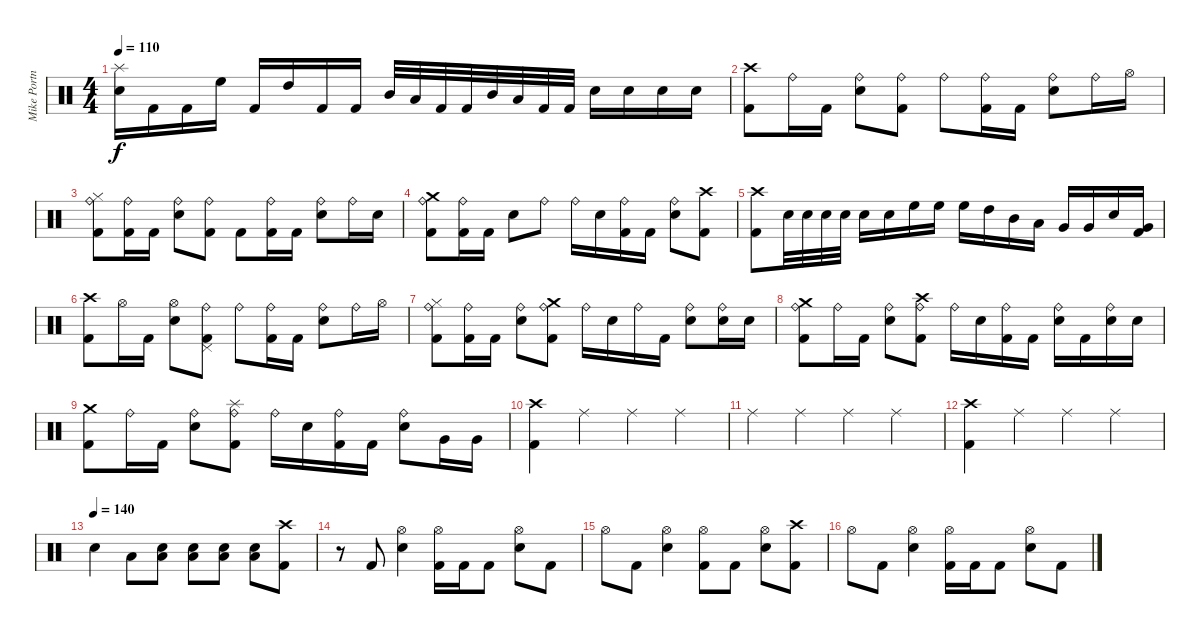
\track ("Mike Portnoy - Drums" "Mike Portn") {instrument percussion}
\staff {score}
\articulation defaults
\ts (4 4)
\tempo 110
\clef neutral
\ks c
("Electric Snare (hit)" "Splash (hit)").16{dy f} "Kick (hit) 2".16 "Kick (hit) 2".16 "High Floor Tom (hit)".16 "Kick (hit) 2".16 "High Tom (hit)".16 "Kick (hit) 2".16 "Kick (hit) 2".16 "Mid Tom (hit)".32 "Low Tom (hit)".32 "Kick (hit) 2".32 "Kick (hit) 2".32 "Mid Tom (hit)".32 "Low Tom (hit)".32 "Kick (hit) 2".32 "Kick (hit) 2".32 "Electric Snare (hit)".16 "Electric Snare (hit)".16 "Electric Snare (hit)".16 "Electric Snare (hit)".16 |
("Crash high (hit)" "Kick (hit) 2").8 "Ride (bell)".16 "Kick (hit) 2".16 ("Electric Snare (hit)" "Ride (bell)").8 ("Kick (hit) 2" "Ride (bell)").8 "Ride (bell)".8 ("Kick (hit) 2" "Ride (bell)").16 "Kick (hit) 2".16 ("Electric Snare (hit)" "Ride (bell)").8 "Ride (bell)".16 "Hi-Hat (open)".16 |
("Ride (bell)" "Hi-Hat (closed)" "Kick (hit) 2").8 ("Ride (bell)" "Kick (hit) 2").16 "Kick (hit) 2".16 ("Electric Snare (hit)" "Ride (bell)").8 ("Kick (hit) 2" "Ride (bell)").8 "Kick (hit) 2".8 ("Kick (hit) 2" "Ride (bell)").16 "Kick (hit) 2".16 ("Ride (bell)" "Electric Snare (hit)").8 "Ride (bell)".16 "Electric Snare (hit)".16 |
("Kick (hit) 2" "Ride (bell)" "Crash medium (hit)").8 ("Ride (bell)" "Kick (hit) 2").16 "Kick (hit) 2".16 "Electric Snare (hit)".8 "Ride (bell)".8 "Ride (bell)".16 "Electric Snare (hit)".16 ("Kick (hit) 2" "Ride (bell)").16 "Kick (hit) 2".16 ("Ride (bell)" "Electric Snare (hit)").8 ("Crash high (hit)" "Kick (hit) 2").8 |
("Kick (hit) 2" "Crash high (hit)").8 "Electric Snare (hit)".32 "Electric Snare (hit)".32 "Electric Snare (hit)".32 "Electric Snare (hit)".32 "Electric Snare (hit)".16 "Electric Snare (hit)".16 "High Floor Tom (hit)".16 "High Floor Tom (hit)".16 "High Floor Tom (hit)".16 "High Tom (hit)".16 "Mid Tom (hit)".16 "Low Tom (hit)".16 "Very Low Tom (hit)".16 "Very Low Tom (hit)".16 "Electric Snare (hit)".16 ("Very Low Tom (hit)" "Kick (hit) 2").16 |
("Kick (hit) 2" "Crash high (hit)").8 "Hi-Hat (open)".16 "Kick (hit) 2".16 ("Electric Snare (hit)" "Hi-Hat (open)").8 ("Kick (hit) 2" "Pedal Hi-Hat (hit)" "Ride (bell)").8 "Ride (bell)".8 ("Kick (hit) 2" "Ride (bell)").16 "Kick (hit) 2".16 ("Electric Snare (hit)" "Ride (bell)").8 "Ride (bell)".16 "Hi-Hat (open)".16 |
("Ride (bell)" "Hi-Hat (closed)" "Kick (hit) 2").8 ("Ride (bell)" "Kick (hit) 2").16 "Kick (hit) 2".16 ("Electric Snare (hit)" "Ride (bell)").8 ("Kick (hit) 2" "Ride (bell)" "Crash medium (hit)").8 "Ride (bell)".16 "Electric Snare (hit)".16 "Ride (bell)".16 "Kick (hit) 2".16 ("Ride (bell)" "Electric Snare (hit)").8 ("Ride (bell)" "Electric Snare (hit)").16 "Electric Snare (hit)".16 |
("Kick (hit) 2" "Ride (bell)" "Crash medium (hit)").8 "Ride (bell)".16 "Kick (hit) 2".16 ("Electric Snare (hit)" "Ride (bell)").8 ("Ride (bell)" "Kick (hit) 2" "Crash high (hit)").8 "Ride (bell)".16 "Electric Snare (hit)".16 ("Kick (hit) 2" "Ride (bell)").16 "Kick (hit) 2".16 ("Ride (bell)" "Electric Snare (hit)").16 "Kick (hit) 2".16 ("Electric Snare (hit)" "Ride (bell)").16 "Electric Snare (hit)".16 |
("Crash medium (hit)" "Kick (hit) 2").8 "Ride (bell)".16 "Kick (hit) 2".16 ("Electric Snare (hit)" "Ride (bell)").8 ("Ride (bell)" "Kick (hit) 2" "Splash (hit)").8 "Ride (bell)".16 "Electric Snare (hit)".16 ("Kick (hit) 2" "Ride (bell)").16 "Kick (hit) 2".16 ("Ride (bell)" "Electric Snare (hit)").8 "Very Low Tom (hit)".16 "Very Low Tom (hit)".16 |
("Kick (hit) 2" "Crash high (hit)").4 "Ride (middle)".4 "Ride (middle)".4 "Ride (middle)".4 |
"Ride (middle)".4 "Ride (middle)".4 "Ride (middle)".4 "Ride (middle)".4 |
("Crash high (hit)" "Kick (hit) 2").4 "Ride (middle)".4 "Ride (middle)".4 "Ride (middle)".4 |
\tempo (140)
"Electric Snare (hit)".4 "Low Tom (hit)".8 ("Electric Snare (hit)" "Low Tom (hit)").8 ("Electric Snare (hit)" "Low Tom (hit)").8 ("Electric Snare (hit)" "Low Tom (hit)").8 ("Electric Snare (hit)" "Low Tom (hit)").8 ("Crash high (hit)" "Kick (hit) 2").8 |
r.8 "Kick (hit) 2".8 ("Electric Snare (hit)" "Hi-Hat (open)").4 ("Kick (hit) 2" "Hi-Hat (open)").16 "Kick (hit) 2".16 "Kick (hit) 2".8 ("Hi-Hat (open)" "Electric Snare (hit)").8 "Kick (hit) 2".8 |
"Hi-Hat (open)".8 "Kick (hit) 2".8 ("Electric Snare (hit)" "Hi-Hat (open)").4 ("Hi-Hat (open)" "Kick (hit) 2").8 "Kick (hit) 2".8 ("Hi-Hat (open)" "Electric Snare (hit)").8 ("Kick (hit) 2" "Crash high (hit)").8 |
"Hi-Hat (open)".8 "Kick (hit) 2".8 ("Electric Snare (hit)" "Hi-Hat (open)").4 ("Kick (hit) 2" "Hi-Hat (open)").16 "Kick (hit) 2".16 "Kick (hit) 2".8 ("Hi-Hat (open)" "Electric Snare (hit)").8 "Kick (hit) 2".8
